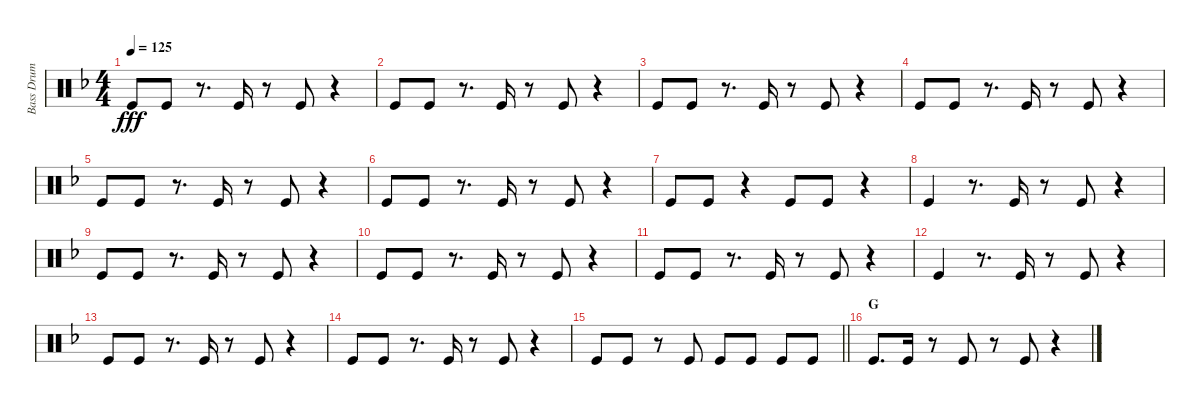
\track ("Bass Drum" "Bass Drum") {instrument percussion}
\staff {score}
\articulation defaults
\ts (4 4)
\tempo 125
\clef neutral
\ks f "Kick (hit)".8{dy fff} "Kick (hit)".8
r.8{d} "Kick (hit)".16 r.8 "Kick (hit)".8 r.4 |
"Kick (hit)".8 "Kick (hit)".8 r.8{d} "Kick (hit)".16 r.8 "Kick (hit)".8 r.4 |
"Kick (hit)".8 "Kick (hit)".8 r.8{d} "Kick (hit)".16 r.8 "Kick (hit)".8 r.4 |
"Kick (hit)".8 "Kick (hit)".8 r.8{d} "Kick (hit)".16 r.8 "Kick (hit)".8 r.4 |
"Kick (hit)".8 "Kick (hit)".8 r.8{d} "Kick (hit)".16 r.8 "Kick (hit)".8 r.4 |
"Kick (hit)".8 "Kick (hit)".8 r.8{d} "Kick (hit)".16 r.8 "Kick (hit)".8 r.4 |
"Kick (hit)".8 "Kick (hit)".8 r.4 "Kick (hit)".8 "Kick (hit)".8 r.4 |
"Kick (hit)".4 r.8{d} "Kick (hit)".16 r.8 "Kick (hit)".8 r.4 |
"Kick (hit)".8 "Kick (hit)".8 r.8{d} "Kick (hit)".16 r.8 "Kick (hit)".8 r.4 |
"Kick (hit)".8 "Kick (hit)".8 r.8{d} "Kick (hit)".16 r.8 "Kick (hit)".8 r.4 |
"Kick (hit)".8 "Kick (hit)".8 r.8{d} "Kick (hit)".16 r.8 "Kick (hit)".8 r.4 |
"Kick (hit)".4 r.8{d} "Kick (hit)".16 r.8 "Kick (hit)".8 r.4 |
"Kick (hit)".8 "Kick (hit)".8 r.8{d} "Kick (hit)".16 r.8 "Kick (hit)".8 r.4 |
"Kick (hit)".8 "Kick (hit)".8 r.8{d} "Kick (hit)".16 r.8 "Kick (hit)".8 r.4 |
\barLineRight lightlight "Kick (hit)".8 "Kick (hit)".8
r.8 "Kick (hit)".8 "Kick (hit)".8 "Kick (hit)".8 "Kick (hit)".8 "Kick (hit)".8 |
\section ("" "G")
"Kick (hit)".8{d} "Kick (hit)".16 r.8 "Kick (hit)".8 r.8 "Kick (hit)".8 r.4
